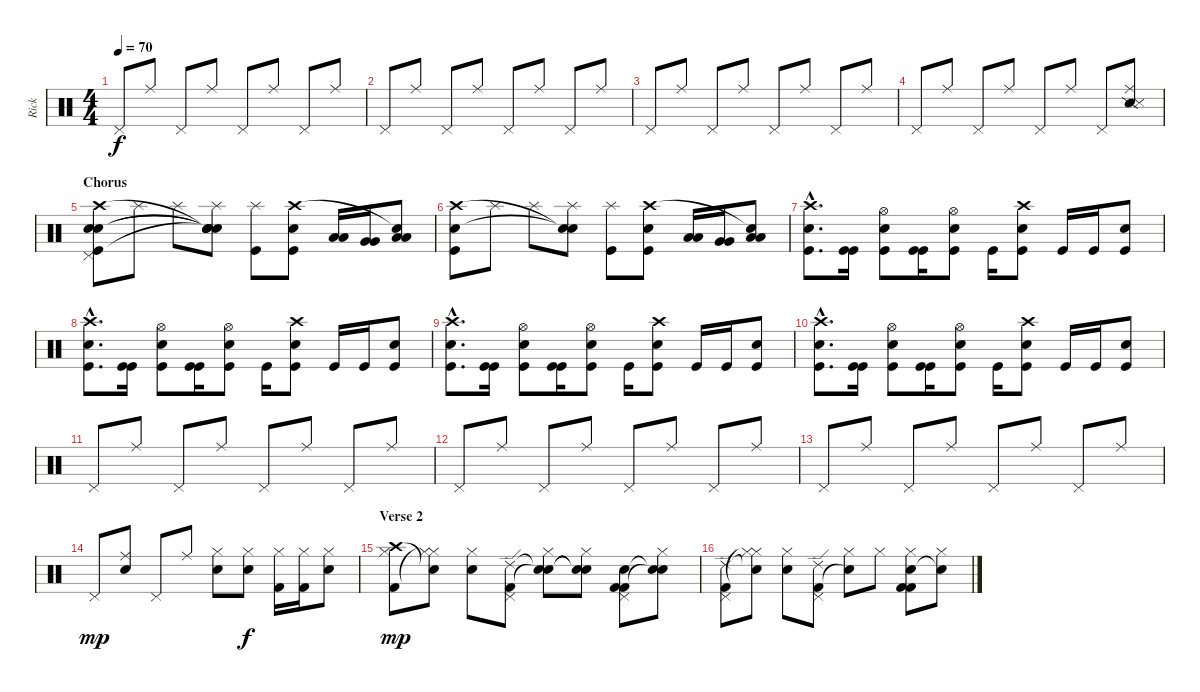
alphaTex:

\track ("Rick" "Rick") {instrument percussion}
\staff {score}
\articulation defaults
\ts (4 4)
\tempo 70
\clef neutral
\ks c "Pedal Hi-Hat (hit)".8{dy f} "Ride (middle)".8 "Pedal Hi-Hat (hit)".8 "Ride (middle)".8 "Pedal Hi-Hat (hit)".8 "Ride (middle)".8 "Pedal Hi-Hat (hit)".8 "Ride (middle)".8
|
"Pedal Hi-Hat (hit)".8 "Ride (middle)".8 "Pedal Hi-Hat (hit)".8 "Ride (middle)".8 "Pedal Hi-Hat (hit)".8 "Ride (middle)".8 "Pedal Hi-Hat (hit)".8 "Ride (middle)".8 |
"Pedal Hi-Hat (hit)".8 "Ride (middle)".8 "Pedal Hi-Hat (hit)".8 "Ride (middle)".8 "Pedal Hi-Hat (hit)".8 "Ride (middle)".8 "Pedal Hi-Hat (hit)".8 "Ride (middle)".8 |
"Pedal Hi-Hat (hit)".8 "Ride (middle)".8 "Pedal Hi-Hat (hit)".8 "Ride (middle)".8 "Pedal Hi-Hat (hit)".8 "Ride (middle)".8 "Pedal Hi-Hat (hit)".8 ("Ride (middle)" "Snare (side stick) 2" "Snare (side stick) 3").8 |
\section ("" "Chorus")
("Pedal Hi-Hat (hit)" "Kick (hit)" "Electric Snare (hit)" "Electric Snare (hit)" "Crash high (hit)").8 "Splash (hit)".8 "Splash (hit)".8 ("Splash (hit)" "Snare (hit)"{t} "Snare (hit)"{t} "Snare (hit)"{t} "Snare (hit)"{t}).8 ("Splash (hit)" "Kick (hit)").8 ("Kick (hit)" "Electric Snare (hit)" "Crash high (hit)").8 ("Low Tom (hit)" "Low Tom (hit)").16 ("Very Low Tom (hit)" "Very Low Tom (hit)").16 ("Low Floor Tom (hit)" "Low Floor Tom (hit)" "Snare (hit)"{t}).8 |
("Kick (hit)" "Crash high (hit)" "Electric Snare (hit)").8 "Splash (hit)".8 "Splash (hit)".8 ("Splash (hit)" "Snare (hit)"{t} "Snare (hit)"{t}).8 ("Splash (hit)" "Kick (hit)").8 ("Kick (hit)" "Electric Snare (hit)" "Crash high (hit)").8 ("Low Tom (hit)" "Low Tom (hit)").16 ("Very Low Tom (hit)" "Very Low Tom (hit)").16 ("Low Floor Tom (hit)" "Low Floor Tom (hit)" "Snare (hit)"{t}).8 |
("Kick (hit)"{hac} "Crash high (hit)"{hac} "Electric Snare (hit)"{hac}).8{d} ("Kick (hit)" "Kick (hit)").16 ("Kick (hit)" "Hi-Hat (open)" "Electric Snare (hit)").8 ("Kick (hit)" "Kick (hit)").16 ("Kick (hit)" "Hi-Hat (open)" "Electric Snare (hit)").8 "Kick (hit)".16 ("Kick (hit)" "Crash high (hit)" "Electric Snare (hit)").8 "Kick (hit)".16 "Kick (hit)".16 ("Kick (hit)" "Electric Snare (hit)").8 |
("Kick (hit)"{hac} "Crash high (hit)"{hac} "Electric Snare (hit)"{hac}).8{d} ("Kick (hit)" "Kick (hit)").16 ("Kick (hit)" "Hi-Hat (open)" "Electric Snare (hit)").8 ("Kick (hit)" "Kick (hit)").16 ("Kick (hit)" "Hi-Hat (open)" "Electric Snare (hit)").8 "Kick (hit)".16 ("Kick (hit)" "Crash high (hit)" "Electric Snare (hit)").8 "Kick (hit)".16 "Kick (hit)".16 ("Kick (hit)" "Electric Snare (hit)").8 |
("Kick (hit)"{hac} "Crash high (hit)"{hac} "Electric Snare (hit)"{hac}).8{d} ("Kick (hit)" "Kick (hit)").16 ("Kick (hit)" "Hi-Hat (open)" "Electric Snare (hit)").8 ("Kick (hit)" "Kick (hit)").16 ("Kick (hit)" "Hi-Hat (open)" "Electric Snare (hit)").8 "Kick (hit)".16 ("Kick (hit)" "Crash high (hit)" "Electric Snare (hit)").8 "Kick (hit)".16 "Kick (hit)".16 ("Kick (hit)" "Electric Snare (hit)").8 |
("Kick (hit)"{hac} "Crash high (hit)"{hac} "Electric Snare (hit)"{hac}).8{d} ("Kick (hit)" "Kick (hit)").16 ("Kick (hit)" "Hi-Hat (open)" "Electric Snare (hit)").8 ("Kick (hit)" "Kick (hit)").16 ("Kick (hit)" "Hi-Hat (open)" "Electric Snare (hit)").8 "Kick (hit)".16 ("Kick (hit)" "Crash high (hit)" "Electric Snare (hit)").8 "Kick (hit)".16 "Kick (hit)".16 ("Kick (hit)" "Electric Snare (hit)").8 |
"Pedal Hi-Hat (hit)".8 "Ride (middle)".8 "Pedal Hi-Hat (hit)".8 "Ride (middle)".8 "Pedal Hi-Hat (hit)".8 "Ride (middle)".8 "Pedal Hi-Hat (hit)".8 "Ride (middle)".8 |
"Pedal Hi-Hat (hit)".8 "Ride (middle)".8 "Pedal Hi-Hat (hit)".8 "Ride (middle)".8 "Pedal Hi-Hat (hit)".8 "Ride (middle)".8 "Pedal Hi-Hat (hit)".8 "Ride (middle)".8 |
"Pedal Hi-Hat (hit)".8 "Ride (middle)".8 "Pedal Hi-Hat (hit)".8 "Ride (middle)".8 "Pedal Hi-Hat (hit)".8 "Ride (middle)".8 "Pedal Hi-Hat (hit)".8 "Ride (middle)".8 |
"Pedal Hi-Hat (hit)".8{dy mp} ("Ride (middle)" "Snare (hit)").8 "Pedal Hi-Hat (hit)".8 "Ride (middle)".8 ("Hi-Hat (closed)" "Electric Snare (hit)").8 ("Hi-Hat (closed)" "Electric Snare (hit)").8{dy f} ("Hi-Hat (closed)" "Kick (hit) 2").16 ("Hi-Hat (closed)" "Kick (hit) 2").16 ("Hi-Hat (closed)" "Electric Snare (hit)").8 |
\section ("" "Verse 2")
("Hi-Hat (closed)" "Kick (hit) 2" "Crash high (hit)").8{dy mp} ("Hi-Hat (closed)" "Hi-Hat (closed)"{t} "Snare (hit)"{t}).8 ("Hi-Hat (closed)" "Electric Snare (hit)").8 ("Pedal Hi-Hat (hit)" "Kick (hit) 2" "Ride (edge) 2").8 ("Hi-Hat (closed)" "Snare (hit)"{t} "Snare (hit)"{t}).8 ("Hi-Hat (closed)" "Snare (hit)"{t} "Snare (hit)"{t}).8 ("Pedal Hi-Hat (hit)" "Electric Snare (hit)" "Kick (hit) 2" "Kick (hit) 2").8 ("Hi-Hat (closed)" "Snare (hit)"{t} "Snare (hit)"{t}).8 |
("Pedal Hi-Hat (hit)" "Kick (hit) 2" "Ride (edge) 2").8 ("Hi-Hat (closed)" "Hi-Hat (closed)"{t} "Snare (hit)"{t}).8 ("Hi-Hat (closed)" "Electric Snare (hit)").8 ("Pedal Hi-Hat (hit)" "Kick (hit) 2" "Ride (edge) 2").8 ("Hi-Hat (closed)" "Snare (hit)"{t}).8 "Hi-Hat (closed)".8 ("Hi-Hat (closed)" "Electric Snare (hit)" "Kick (hit) 2" "Kick (hit) 2").8 ("Hi-Hat (closed)" "Snare (hit)"{t}).8
